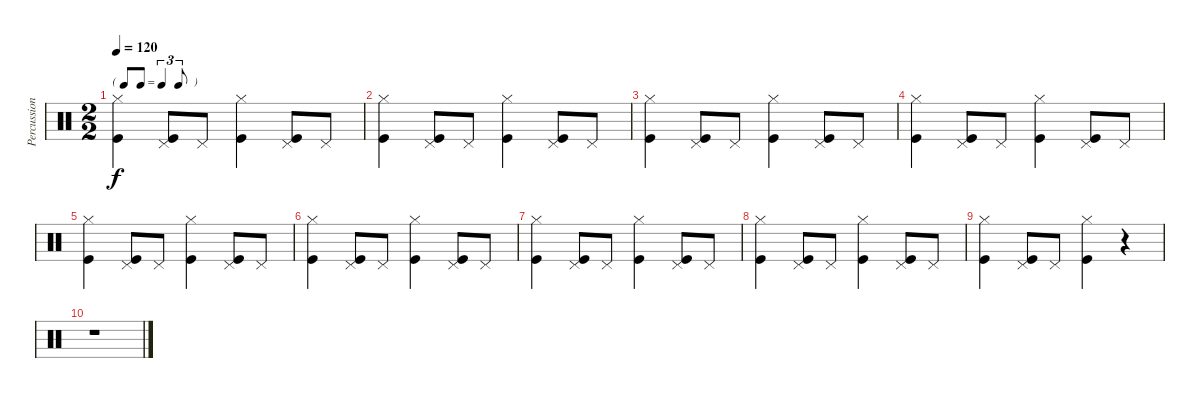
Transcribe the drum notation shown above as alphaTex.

\track ("Percussions" "Percussion") {instrument percussion}
\staff {score}
\articulation defaults
\ts (2 2)
\tf triplet8th
\tempo 120
\clef neutral
\ks c
("Hi-Hat (closed)" "Kick (hit)").4{dy f} ("Pedal Hi-Hat (hit)" "Kick (hit)").8 "Pedal Hi-Hat (hit)".8 ("Hi-Hat (closed)" "Kick (hit)").4 ("Pedal Hi-Hat (hit)" "Kick (hit)").8 "Pedal Hi-Hat (hit)".8 |
("Hi-Hat (closed)" "Kick (hit)").4 ("Pedal Hi-Hat (hit)" "Kick (hit)").8 "Pedal Hi-Hat (hit)".8 ("Hi-Hat (closed)" "Kick (hit)").4 ("Pedal Hi-Hat (hit)" "Kick (hit)").8 "Pedal Hi-Hat (hit)".8 |
("Hi-Hat (closed)" "Kick (hit)").4 ("Pedal Hi-Hat (hit)" "Kick (hit)").8 "Pedal Hi-Hat (hit)".8 ("Hi-Hat (closed)" "Kick (hit)").4 ("Pedal Hi-Hat (hit)" "Kick (hit)").8 "Pedal Hi-Hat (hit)".8 |
("Hi-Hat (closed)" "Kick (hit)").4 ("Pedal Hi-Hat (hit)" "Kick (hit)").8 "Pedal Hi-Hat (hit)".8 ("Hi-Hat (closed)" "Kick (hit)").4 ("Pedal Hi-Hat (hit)" "Kick (hit)").8 "Pedal Hi-Hat (hit)".8 |
("Hi-Hat (closed)" "Kick (hit)").4 ("Pedal Hi-Hat (hit)" "Kick (hit)").8 "Pedal Hi-Hat (hit)".8 ("Hi-Hat (closed)" "Kick (hit)").4 ("Pedal Hi-Hat (hit)" "Kick (hit)").8 "Pedal Hi-Hat (hit)".8 |
("Hi-Hat (closed)" "Kick (hit)").4 ("Pedal Hi-Hat (hit)" "Kick (hit)").8 "Pedal Hi-Hat (hit)".8 ("Hi-Hat (closed)" "Kick (hit)").4 ("Pedal Hi-Hat (hit)" "Kick (hit)").8 "Pedal Hi-Hat (hit)".8 |
("Hi-Hat (closed)" "Kick (hit)").4 ("Pedal Hi-Hat (hit)" "Kick (hit)").8 "Pedal Hi-Hat (hit)".8 ("Hi-Hat (closed)" "Kick (hit)").4 ("Pedal Hi-Hat (hit)" "Kick (hit)").8 "Pedal Hi-Hat (hit)".8 |
("Hi-Hat (closed)" "Kick (hit)").4 ("Pedal Hi-Hat (hit)" "Kick (hit)").8 "Pedal Hi-Hat (hit)".8 ("Hi-Hat (closed)" "Kick (hit)").4 ("Pedal Hi-Hat (hit)" "Kick (hit)").8 "Pedal Hi-Hat (hit)".8 |
("Hi-Hat (closed)" "Kick (hit)").4 ("Pedal Hi-Hat (hit)" "Kick (hit)").8 "Pedal Hi-Hat (hit)".8 ("Hi-Hat (closed)" "Kick (hit)").4 r.4 |
r.1
